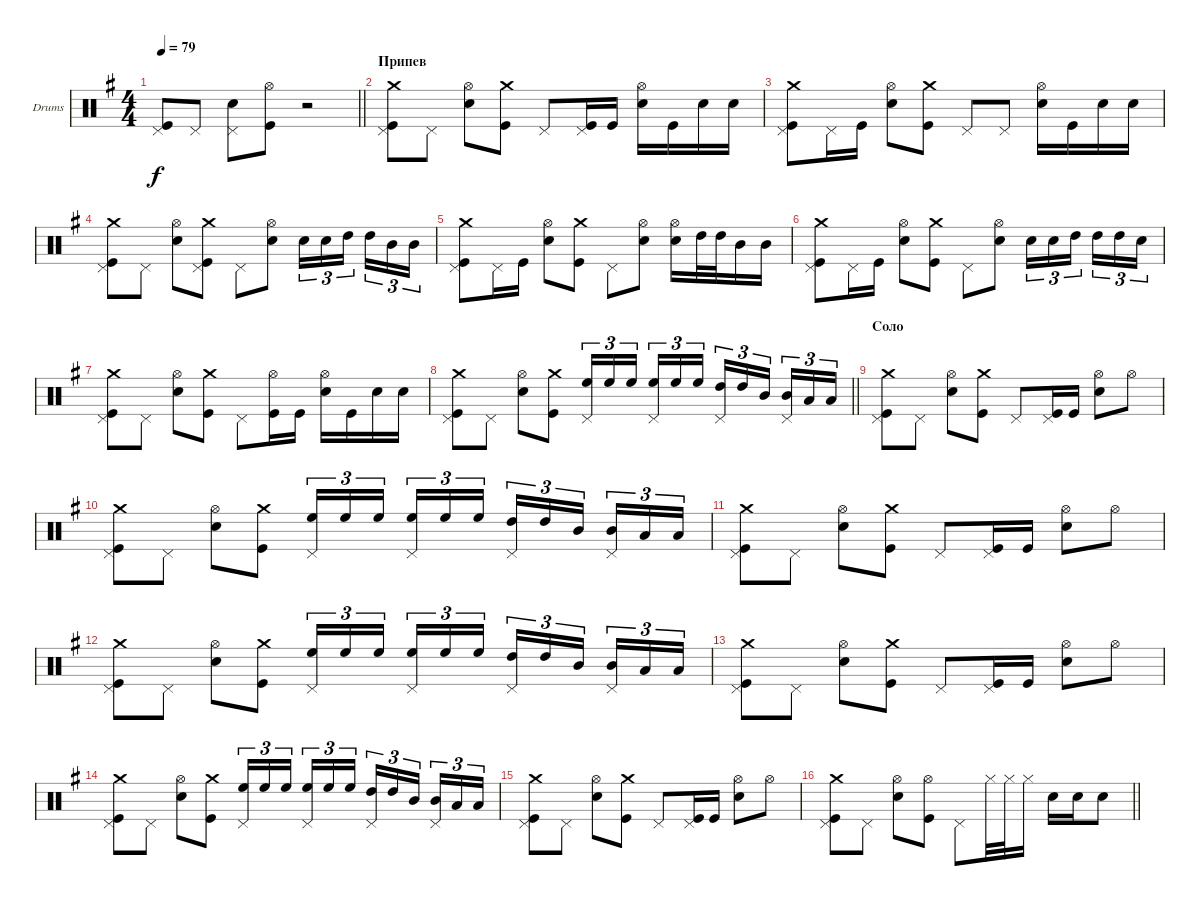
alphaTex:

\bracketExtendMode groupsimilarinstruments
\firstSystemTrackNameOrientation horizontal
\otherSystemsTrackNameOrientation horizontal
\track ("Александр Манякин" "Drums") {instrument percussion}
\staff {score}
\articulation defaults
\ts (4 4)
\tempo 79
\clef neutral
\barLineRight lightlight
\ks eminor
("Kick (hit)" "Pedal Hi-Hat (hit)").8{dy f} "Pedal Hi-Hat (hit)".8 ("Pedal Hi-Hat (hit)" "Snare (hit) 2").8 ("Kick (hit)" "Hi-Hat (open)").8 r.2 |
\section ("" "Припев")
("Kick (hit)" "Crash medium (hit)" "Pedal Hi-Hat (hit)").8 "Pedal Hi-Hat (hit)".8 ("Snare (hit) 2" "Hi-Hat (open)").8 ("Kick (hit)" "Crash medium (hit)").8 "Pedal Hi-Hat (hit)".8 ("Kick (hit)" "Pedal Hi-Hat (hit)").16 "Kick (hit)".16 ("Snare (hit) 2" "Hi-Hat (open)").16 "Kick (hit)".16 "Snare (hit) 2".16 "Snare (hit) 2".16 |
("Kick (hit)" "Crash medium (hit)" "Pedal Hi-Hat (hit)").8 "Pedal Hi-Hat (hit)".16 "Kick (hit)".16 ("Snare (hit) 2" "Hi-Hat (open)").8 ("Kick (hit)" "Crash medium (hit)").8 "Pedal Hi-Hat (hit)".8 "Pedal Hi-Hat (hit)".8 ("Snare (hit) 2" "Hi-Hat (open)").16 "Kick (hit)".16 "Snare (hit) 2".16 "Snare (hit) 2".16 |
("Kick (hit)" "Crash medium (hit)" "Pedal Hi-Hat (hit)").8 "Pedal Hi-Hat (hit)".8 ("Snare (hit) 2" "Hi-Hat (open)").8 ("Kick (hit)" "Crash medium (hit)" "Pedal Hi-Hat (hit)").8 "Pedal Hi-Hat (hit)".8 ("Snare (hit) 2" "Hi-Hat (open)").8 "Snare (hit) 2".16{tu (3 2)} "Snare (hit) 2".16{tu (3 2)} "High Tom (hit)".16{tu (3 2)} "High Tom (hit)".16{tu (3 2)} "Mid Tom (hit)".16{tu (3 2)} "Mid Tom (hit)".16{tu (3 2)} |
("Kick (hit)" "Crash medium (hit)" "Pedal Hi-Hat (hit)").8 "Pedal Hi-Hat (hit)".16 "Kick (hit)".16 ("Snare (hit) 2" "Hi-Hat (open)").8 ("Kick (hit)" "Crash medium (hit)").8 "Pedal Hi-Hat (hit)".8 ("Hi-Hat (open)" "Snare (hit) 2").8 ("Snare (hit) 2" "Hi-Hat (open)").16 "High Tom (hit)".32 "High Tom (hit)".32 "Mid Tom (hit)".16 "Mid Tom (hit)".16 |
("Kick (hit)" "Crash medium (hit)" "Pedal Hi-Hat (hit)").8 "Pedal Hi-Hat (hit)".16 "Kick (hit)".16 ("Snare (hit) 2" "Hi-Hat (open)").8 ("Kick (hit)" "Crash medium (hit)").8 "Pedal Hi-Hat (hit)".8 ("Hi-Hat (open)" "Snare (hit) 2").8 "Snare (hit) 2".16{tu (3 2)} "Snare (hit) 2".16{tu (3 2)} "High Tom (hit)".16{tu (3 2)} "High Tom (hit)".16{tu (3 2)} "High Tom (hit)".16{tu (3 2)} "Snare (hit) 2".16{tu (3 2)} |
("Kick (hit)" "Crash medium (hit)" "Pedal Hi-Hat (hit)").8 "Pedal Hi-Hat (hit)".8 ("Snare (hit) 2" "Hi-Hat (open)").8 ("Kick (hit)" "Crash medium (hit)").8 "Pedal Hi-Hat (hit)".8 ("Hi-Hat (open)" "Kick (hit)").16 "Kick (hit)".16 ("Snare (hit) 2" "Hi-Hat (open)").16 "Kick (hit)".16 "Snare (hit) 2".16 "Snare (hit) 2".16 |
\barLineRight lightlight
("Kick (hit)" "Pedal Hi-Hat (hit)" "Crash medium (hit)").8 "Pedal Hi-Hat (hit)".8 ("Snare (hit) 2" "Hi-Hat (open)").8 ("Kick (hit)" "Crash medium (hit)").8 ("High Floor Tom (hit)" "Pedal Hi-Hat (hit)").16{tu (3 2)} "High Floor Tom (hit)".16{tu (3 2)} "High Floor Tom (hit)".16{tu (3 2)} ("High Floor Tom (hit)" "Pedal Hi-Hat (hit)").16{tu (3 2)} "High Floor Tom (hit)".16{tu (3 2)} "High Floor Tom (hit)".16{tu (3 2)} ("High Tom (hit)" "Pedal Hi-Hat (hit)").16{tu (3 2)} "High Tom (hit)".16{tu (3 2)} "Mid Tom (hit)".16{tu (3 2)} ("Mid Tom (hit)" "Pedal Hi-Hat (hit)").16{tu (3 2)} "Low Tom (hit)".16{tu (3 2)} "Low Tom (hit)".16{tu (3 2)} |
\section ("" "Соло")
("Kick (hit)" "Crash medium (hit)" "Pedal Hi-Hat (hit)").8 "Pedal Hi-Hat (hit)".8 ("Hi-Hat (open)" "Snare (hit) 2").8 ("Crash medium (hit)" "Kick (hit)").8 "Pedal Hi-Hat (hit)".8 ("Pedal Hi-Hat (hit)" "Kick (hit)").16 "Kick (hit)".16 ("Hi-Hat (open)" "Snare (hit) 2").8 "Hi-Hat (open)".8 |
("Kick (hit)" "Crash medium (hit)" "Pedal Hi-Hat (hit)").8 "Pedal Hi-Hat (hit)".8 ("Hi-Hat (open)" "Snare (hit) 2").8 ("Kick (hit)" "Crash medium (hit)").8 ("High Floor Tom (hit)" "Pedal Hi-Hat (hit)").16{tu (3 2)} "High Floor Tom (hit)".16{tu (3 2)} "High Floor Tom (hit)".16{tu (3 2)} ("High Floor Tom (hit)" "Pedal Hi-Hat (hit)").16{tu (3 2)} "High Floor Tom (hit)".16{tu (3 2)} "High Floor Tom (hit)".16{tu (3 2)} ("High Tom (hit)" "Pedal Hi-Hat (hit)").16{tu (3 2)} "High Tom (hit)".16{tu (3 2)} "Mid Tom (hit)".16{tu (3 2)} ("Mid Tom (hit)" "Pedal Hi-Hat (hit)").16{tu (3 2)} "Low Tom (hit)".16{tu (3 2)} "Low Tom (hit)".16{tu (3 2)} |
("Kick (hit)" "Crash medium (hit)" "Pedal Hi-Hat (hit)").8 "Pedal Hi-Hat (hit)".8 ("Hi-Hat (open)" "Snare (hit) 2").8 ("Crash medium (hit)" "Kick (hit)").8 "Pedal Hi-Hat (hit)".8 ("Pedal Hi-Hat (hit)" "Kick (hit)").16 "Kick (hit)".16 ("Hi-Hat (open)" "Snare (hit) 2").8 "Hi-Hat (open)".8 |
("Kick (hit)" "Crash medium (hit)" "Pedal Hi-Hat (hit)").8 "Pedal Hi-Hat (hit)".8 ("Hi-Hat (open)" "Snare (hit) 2").8 ("Kick (hit)" "Crash medium (hit)").8 ("High Floor Tom (hit)" "Pedal Hi-Hat (hit)").16{tu (3 2)} "High Floor Tom (hit)".16{tu (3 2)} "High Floor Tom (hit)".16{tu (3 2)} ("High Floor Tom (hit)" "Pedal Hi-Hat (hit)").16{tu (3 2)} "High Floor Tom (hit)".16{tu (3 2)} "High Floor Tom (hit)".16{tu (3 2)} ("High Tom (hit)" "Pedal Hi-Hat (hit)").16{tu (3 2)} "High Tom (hit)".16{tu (3 2)} "Mid Tom (hit)".16{tu (3 2)} ("Mid Tom (hit)" "Pedal Hi-Hat (hit)").16{tu (3 2)} "Low Tom (hit)".16{tu (3 2)} "Low Tom (hit)".16{tu (3 2)} |
("Kick (hit)" "Crash medium (hit)" "Pedal Hi-Hat (hit)").8 "Pedal Hi-Hat (hit)".8 ("Hi-Hat (open)" "Snare (hit) 2").8 ("Crash medium (hit)" "Kick (hit)").8 "Pedal Hi-Hat (hit)".8 ("Pedal Hi-Hat (hit)" "Kick (hit)").16 "Kick (hit)".16 ("Hi-Hat (open)" "Snare (hit) 2").8 "Hi-Hat (open)".8 |
("Kick (hit)" "Crash medium (hit)" "Pedal Hi-Hat (hit)").8 "Pedal Hi-Hat (hit)".8 ("Hi-Hat (open)" "Snare (hit) 2").8 ("Kick (hit)" "Crash medium (hit)").8 ("High Floor Tom (hit)" "Pedal Hi-Hat (hit)").16{tu (3 2)} "High Floor Tom (hit)".16{tu (3 2)} "High Floor Tom (hit)".16{tu (3 2)} ("High Floor Tom (hit)" "Pedal Hi-Hat (hit)").16{tu (3 2)} "High Floor Tom (hit)".16{tu (3 2)} "High Floor Tom (hit)".16{tu (3 2)} ("High Tom (hit)" "Pedal Hi-Hat (hit)").16{tu (3 2)} "High Tom (hit)".16{tu (3 2)} "Mid Tom (hit)".16{tu (3 2)} ("Mid Tom (hit)" "Pedal Hi-Hat (hit)").16{tu (3 2)} "Low Tom (hit)".16{tu (3 2)} "Low Tom (hit)".16{tu (3 2)} |
("Kick (hit)" "Crash medium (hit)" "Pedal Hi-Hat (hit)").8 "Pedal Hi-Hat (hit)".8 ("Hi-Hat (open)" "Snare (hit) 2").8 ("Crash medium (hit)" "Kick (hit)").8 "Pedal Hi-Hat (hit)".8 ("Kick (hit)" "Pedal Hi-Hat (hit)").16 "Kick (hit)".16 ("Hi-Hat (open)" "Snare (hit) 2").8 "Hi-Hat (open)".8 |
\barLineRight lightlight
("Kick (hit)" "Crash medium (hit)" "Pedal Hi-Hat (hit)").8 "Pedal Hi-Hat (hit)".8 ("Hi-Hat (open)" "Snare (hit) 2").8 ("Hi-Hat (open)" "Kick (hit)").8 "Pedal Hi-Hat (hit)".8 "Hi-Hat (closed)".32 "Hi-Hat (closed)".32 "Hi-Hat (closed)".16 "Snare (hit) 2".16 "Snare (hit) 2".16 "Snare (hit) 2".8
